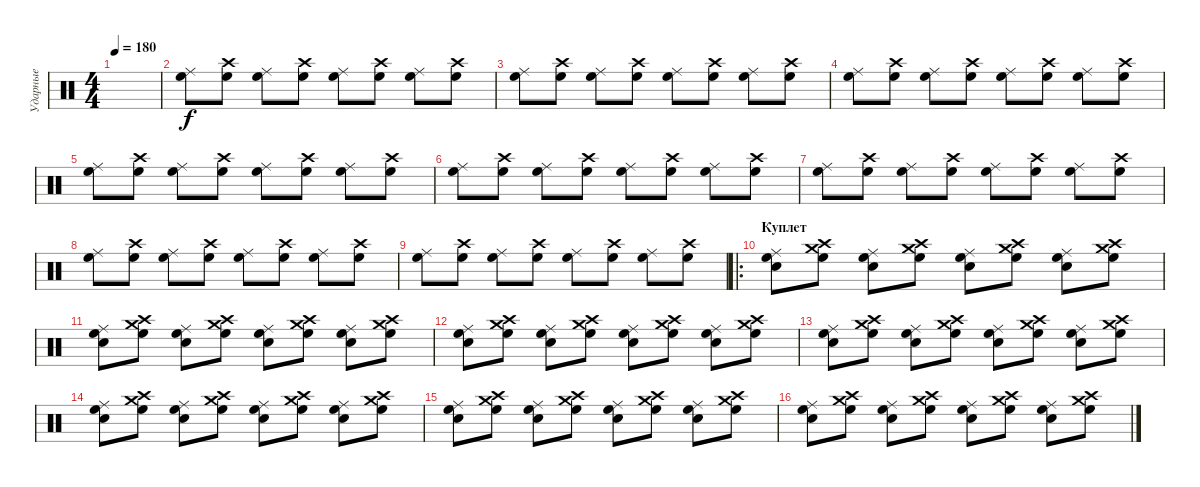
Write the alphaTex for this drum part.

\track ("Ударные" "Ударные") {instrument percussion}
\staff {score}
\articulation defaults
\ts (4 4)
\tempo 180
\clef neutral
\ks c
|
("High Floor Tom (hit)" "Ride (middle)").8 ("High Floor Tom (hit)" "Crash high (hit)").8 ("High Floor Tom (hit)" "Ride (middle)").8 ("High Floor Tom (hit)" "Crash high (hit)").8 ("High Floor Tom (hit)" "Ride (middle)").8 ("High Floor Tom (hit)" "Crash high (hit)").8 ("High Floor Tom (hit)" "Ride (middle)").8 ("High Floor Tom (hit)" "Crash high (hit)").8 |
("High Floor Tom (hit)" "Ride (middle)").8 ("High Floor Tom (hit)" "Crash high (hit)").8 ("High Floor Tom (hit)" "Ride (middle)").8 ("High Floor Tom (hit)" "Crash high (hit)").8 ("High Floor Tom (hit)" "Ride (middle)").8 ("High Floor Tom (hit)" "Crash high (hit)").8 ("High Floor Tom (hit)" "Ride (middle)").8 ("High Floor Tom (hit)" "Crash high (hit)").8 |
("High Floor Tom (hit)" "Ride (middle)").8 ("High Floor Tom (hit)" "Crash high (hit)").8 ("High Floor Tom (hit)" "Ride (middle)").8 ("High Floor Tom (hit)" "Crash high (hit)").8 ("High Floor Tom (hit)" "Ride (middle)").8 ("High Floor Tom (hit)" "Crash high (hit)").8 ("High Floor Tom (hit)" "Ride (middle)").8 ("High Floor Tom (hit)" "Crash high (hit)").8 |
("High Floor Tom (hit)" "Ride (middle)").8 ("High Floor Tom (hit)" "Crash high (hit)").8 ("High Floor Tom (hit)" "Ride (middle)").8 ("High Floor Tom (hit)" "Crash high (hit)").8 ("High Floor Tom (hit)" "Ride (middle)").8 ("High Floor Tom (hit)" "Crash high (hit)").8 ("High Floor Tom (hit)" "Ride (middle)").8 ("High Floor Tom (hit)" "Crash high (hit)").8 |
("High Floor Tom (hit)" "Ride (middle)").8 ("High Floor Tom (hit)" "Crash high (hit)").8 ("High Floor Tom (hit)" "Ride (middle)").8 ("High Floor Tom (hit)" "Crash high (hit)").8 ("High Floor Tom (hit)" "Ride (middle)").8 ("High Floor Tom (hit)" "Crash high (hit)").8 ("High Floor Tom (hit)" "Ride (middle)").8 ("High Floor Tom (hit)" "Crash high (hit)").8 |
("High Floor Tom (hit)" "Ride (middle)").8 ("High Floor Tom (hit)" "Crash high (hit)").8 ("High Floor Tom (hit)" "Ride (middle)").8 ("High Floor Tom (hit)" "Crash high (hit)").8 ("High Floor Tom (hit)" "Ride (middle)").8 ("High Floor Tom (hit)" "Crash high (hit)").8 ("High Floor Tom (hit)" "Ride (middle)").8 ("High Floor Tom (hit)" "Crash high (hit)").8 |
("High Floor Tom (hit)" "Ride (middle)").8 ("High Floor Tom (hit)" "Crash high (hit)").8 ("High Floor Tom (hit)" "Ride (middle)").8 ("High Floor Tom (hit)" "Crash high (hit)").8 ("High Floor Tom (hit)" "Ride (middle)").8 ("High Floor Tom (hit)" "Crash high (hit)").8 ("High Floor Tom (hit)" "Ride (middle)").8 ("High Floor Tom (hit)" "Crash high (hit)").8 |
("High Floor Tom (hit)" "Ride (middle)").8 ("High Floor Tom (hit)" "Crash high (hit)").8 ("High Floor Tom (hit)" "Ride (middle)").8 ("High Floor Tom (hit)" "Crash high (hit)").8 ("High Floor Tom (hit)" "Ride (middle)").8 ("High Floor Tom (hit)" "Crash high (hit)").8 ("High Floor Tom (hit)" "Ride (middle)").8 ("High Floor Tom (hit)" "Crash high (hit)").8 |
\ro
\section ("" "Куплет")
("High Floor Tom (hit)" "Ride (middle)" "Snare (hit) 2").8 ("High Floor Tom (hit)" "Crash high (hit)" "Crash medium (hit)").8 ("High Floor Tom (hit)" "Ride (middle)" "Snare (hit) 2").8 ("High Floor Tom (hit)" "Crash high (hit)" "Crash medium (hit)").8 ("High Floor Tom (hit)" "Ride (middle)" "Snare (hit) 2").8 ("High Floor Tom (hit)" "Crash high (hit)" "Crash medium (hit)").8 ("High Floor Tom (hit)" "Ride (middle)" "Snare (hit) 2").8 ("High Floor Tom (hit)" "Crash high (hit)" "Crash medium (hit)").8 |
("High Floor Tom (hit)" "Ride (middle)" "Snare (hit) 2").8 ("High Floor Tom (hit)" "Crash high (hit)" "Crash medium (hit)").8 ("High Floor Tom (hit)" "Ride (middle)" "Snare (hit) 2").8 ("High Floor Tom (hit)" "Crash high (hit)" "Crash medium (hit)").8 ("High Floor Tom (hit)" "Ride (middle)" "Snare (hit) 2").8 ("High Floor Tom (hit)" "Crash high (hit)" "Crash medium (hit)").8 ("High Floor Tom (hit)" "Ride (middle)" "Snare (hit) 2").8 ("High Floor Tom (hit)" "Crash high (hit)" "Crash medium (hit)").8 |
("High Floor Tom (hit)" "Ride (middle)" "Snare (hit) 2").8 ("High Floor Tom (hit)" "Crash high (hit)" "Crash medium (hit)").8 ("High Floor Tom (hit)" "Ride (middle)" "Snare (hit) 2").8 ("High Floor Tom (hit)" "Crash high (hit)" "Crash medium (hit)").8 ("High Floor Tom (hit)" "Ride (middle)" "Snare (hit) 2").8 ("High Floor Tom (hit)" "Crash high (hit)" "Crash medium (hit)").8 ("High Floor Tom (hit)" "Ride (middle)" "Snare (hit) 2").8 ("High Floor Tom (hit)" "Crash high (hit)" "Crash medium (hit)").8 |
("High Floor Tom (hit)" "Ride (middle)" "Snare (hit) 2").8 ("High Floor Tom (hit)" "Crash high (hit)" "Crash medium (hit)").8 ("High Floor Tom (hit)" "Ride (middle)" "Snare (hit) 2").8 ("High Floor Tom (hit)" "Crash high (hit)" "Crash medium (hit)").8 ("High Floor Tom (hit)" "Ride (middle)" "Snare (hit) 2").8 ("High Floor Tom (hit)" "Crash high (hit)" "Crash medium (hit)").8 ("High Floor Tom (hit)" "Ride (middle)" "Snare (hit) 2").8 ("High Floor Tom (hit)" "Crash high (hit)" "Crash medium (hit)").8 |
("High Floor Tom (hit)" "Ride (middle)" "Snare (hit) 2").8 ("High Floor Tom (hit)" "Crash high (hit)" "Crash medium (hit)").8 ("High Floor Tom (hit)" "Ride (middle)" "Snare (hit) 2").8 ("High Floor Tom (hit)" "Crash high (hit)" "Crash medium (hit)").8 ("High Floor Tom (hit)" "Ride (middle)" "Snare (hit) 2").8 ("High Floor Tom (hit)" "Crash high (hit)" "Crash medium (hit)").8 ("High Floor Tom (hit)" "Ride (middle)" "Snare (hit) 2").8 ("High Floor Tom (hit)" "Crash high (hit)" "Crash medium (hit)").8 |
("High Floor Tom (hit)" "Ride (middle)" "Snare (hit) 2").8 ("High Floor Tom (hit)" "Crash high (hit)" "Crash medium (hit)").8 ("High Floor Tom (hit)" "Ride (middle)" "Snare (hit) 2").8 ("High Floor Tom (hit)" "Crash high (hit)" "Crash medium (hit)").8 ("High Floor Tom (hit)" "Ride (middle)" "Snare (hit) 2").8 ("High Floor Tom (hit)" "Crash high (hit)" "Crash medium (hit)").8 ("High Floor Tom (hit)" "Ride (middle)" "Snare (hit) 2").8 ("High Floor Tom (hit)" "Crash high (hit)" "Crash medium (hit)").8 |
("High Floor Tom (hit)" "Ride (middle)" "Snare (hit) 2").8 ("High Floor Tom (hit)" "Crash high (hit)" "Crash medium (hit)").8 ("High Floor Tom (hit)" "Ride (middle)" "Snare (hit) 2").8 ("High Floor Tom (hit)" "Crash high (hit)" "Crash medium (hit)").8 ("High Floor Tom (hit)" "Ride (middle)" "Snare (hit) 2").8 ("High Floor Tom (hit)" "Crash high (hit)" "Crash medium (hit)").8 ("High Floor Tom (hit)" "Ride (middle)" "Snare (hit) 2").8 ("High Floor Tom (hit)" "Crash high (hit)" "Crash medium (hit)").8
